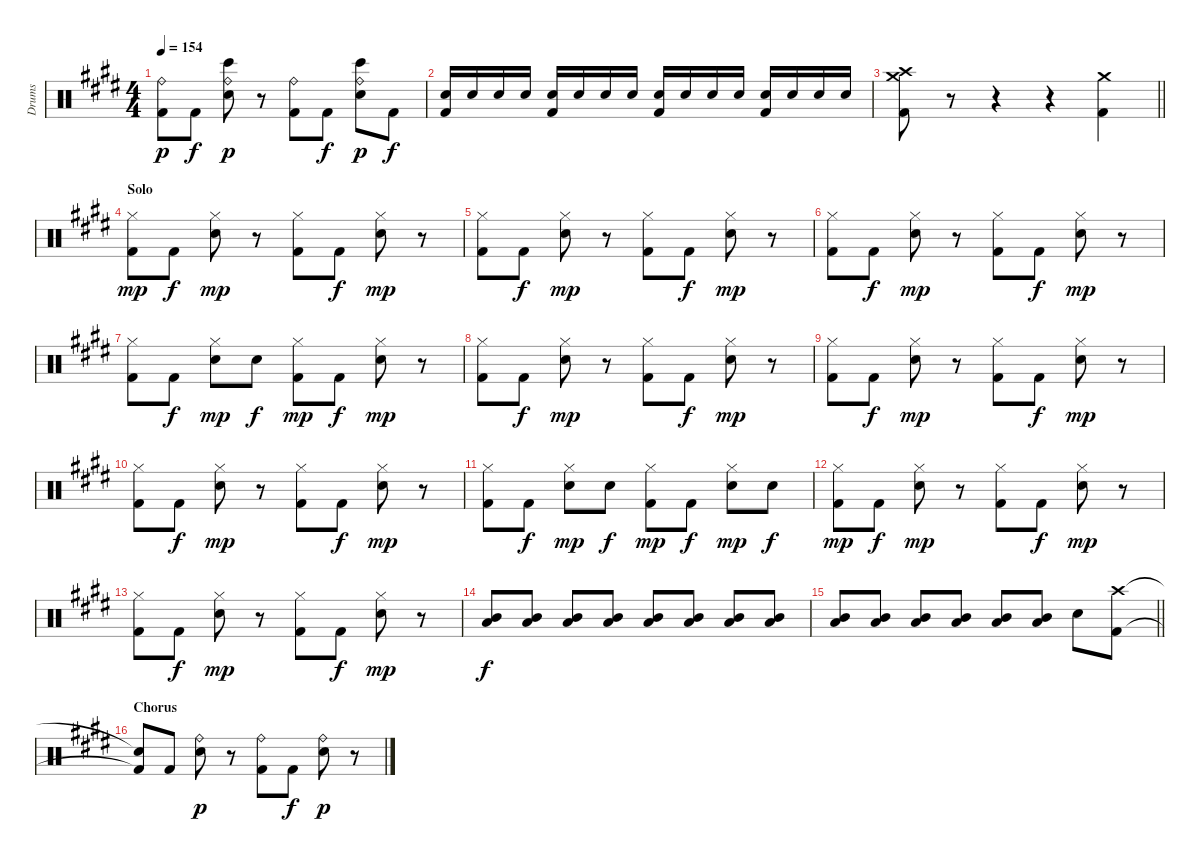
\track ("Drums" "Drums") {instrument percussion}
\staff {score}
\articulation defaults
\ts (4 4)
\tempo 154
\clef neutral
\ks e
("Ride (bell)" "Kick (hit) 2").8{dy p} "Kick (hit) 2".8{dy f} ("Ride (bell)" "Electric Snare (hit)" "Bongo High (hit)").8{dy p} r.8 ("Ride (bell)" "Kick (hit) 2").8 "Kick (hit) 2".8{dy f} ("Ride (bell)" "Electric Snare (hit)" "Bongo High (hit)").8{dy p} "Kick (hit) 2".8{dy f} |
("Electric Snare (hit)" "Kick (hit) 2").16 "Electric Snare (hit)".16 "Electric Snare (hit)".16 "Electric Snare (hit)".16 ("Electric Snare (hit)" "Kick (hit) 2").16 "Electric Snare (hit)".16 "Electric Snare (hit)".16 "Electric Snare (hit)".16 ("Electric Snare (hit)" "Kick (hit) 2").16 "Electric Snare (hit)".16 "Electric Snare (hit)".16 "Electric Snare (hit)".16 ("Electric Snare (hit)" "Kick (hit) 2").16 "Electric Snare (hit)".16 "Electric Snare (hit)".16 "Electric Snare (hit)".16 |
\barLineRight lightlight
("Crash medium (hit)" "Crash high (hit)" "Kick (hit) 2").8 r.8 r.4 r.4 ("Crash medium (hit)" "Kick (hit) 2").4 |
\section ("" "Solo")
("Hi-Hat (closed)" "Kick (hit) 2").8{dy mp} "Kick (hit) 2".8{dy f} ("Hi-Hat (closed)" "Electric Snare (hit)").8{dy mp} r.8 ("Hi-Hat (closed)" "Kick (hit) 2").8 "Kick (hit) 2".8{dy f} ("Hi-Hat (closed)" "Electric Snare (hit)").8{dy mp} r.8 |
("Hi-Hat (closed)" "Kick (hit) 2").8 "Kick (hit) 2".8{dy f} ("Hi-Hat (closed)" "Electric Snare (hit)").8{dy mp} r.8 ("Hi-Hat (closed)" "Kick (hit) 2").8 "Kick (hit) 2".8{dy f} ("Hi-Hat (closed)" "Electric Snare (hit)").8{dy mp} r.8 |
("Hi-Hat (closed)" "Kick (hit) 2").8 "Kick (hit) 2".8{dy f} ("Hi-Hat (closed)" "Electric Snare (hit)").8{dy mp} r.8 ("Hi-Hat (closed)" "Kick (hit) 2").8 "Kick (hit) 2".8{dy f} ("Hi-Hat (closed)" "Electric Snare (hit)").8{dy mp} r.8 |
("Hi-Hat (closed)" "Kick (hit) 2").8 "Kick (hit) 2".8{dy f} ("Hi-Hat (closed)" "Electric Snare (hit)").8{dy mp} "Electric Snare (hit)".8{dy f} ("Hi-Hat (closed)" "Kick (hit) 2").8{dy mp} "Kick (hit) 2".8{dy f} ("Hi-Hat (closed)" "Electric Snare (hit)").8{dy mp} r.8 |
("Hi-Hat (closed)" "Kick (hit) 2").8 "Kick (hit) 2".8{dy f} ("Hi-Hat (closed)" "Electric Snare (hit)").8{dy mp} r.8 ("Hi-Hat (closed)" "Kick (hit) 2").8 "Kick (hit) 2".8{dy f} ("Hi-Hat (closed)" "Electric Snare (hit)").8{dy mp} r.8 |
("Hi-Hat (closed)" "Kick (hit) 2").8 "Kick (hit) 2".8{dy f} ("Hi-Hat (closed)" "Electric Snare (hit)").8{dy mp} r.8 ("Hi-Hat (closed)" "Kick (hit) 2").8 "Kick (hit) 2".8{dy f} ("Hi-Hat (closed)" "Electric Snare (hit)").8{dy mp} r.8 |
("Hi-Hat (closed)" "Kick (hit) 2").8 "Kick (hit) 2".8{dy f} ("Hi-Hat (closed)" "Electric Snare (hit)").8{dy mp} r.8 ("Hi-Hat (closed)" "Kick (hit) 2").8 "Kick (hit) 2".8{dy f} ("Hi-Hat (closed)" "Electric Snare (hit)").8{dy mp} r.8 |
("Hi-Hat (closed)" "Kick (hit) 2").8 "Kick (hit) 2".8{dy f} ("Hi-Hat (closed)" "Electric Snare (hit)").8{dy mp} "Electric Snare (hit)".8{dy f} ("Hi-Hat (closed)" "Kick (hit) 2").8{dy mp} "Kick (hit) 2".8{dy f} ("Hi-Hat (closed)" "Electric Snare (hit)").8{dy mp} "Electric Snare (hit)".8{dy f} |
("Hi-Hat (closed)" "Kick (hit) 2").8{dy mp} "Kick (hit) 2".8{dy f} ("Hi-Hat (closed)" "Electric Snare (hit)").8{dy mp} r.8 ("Hi-Hat (closed)" "Kick (hit) 2").8 "Kick (hit) 2".8{dy f} ("Hi-Hat (closed)" "Electric Snare (hit)").8{dy mp} r.8 |
("Hi-Hat (closed)" "Kick (hit) 2").8 "Kick (hit) 2".8{dy f} ("Hi-Hat (closed)" "Electric Snare (hit)").8{dy mp} r.8 ("Hi-Hat (closed)" "Kick (hit) 2").8 "Kick (hit) 2".8{dy f} ("Hi-Hat (closed)" "Electric Snare (hit)").8{dy mp} r.8 |
("Mid Tom (hit)" "Low Tom (hit)").8{dy f} ("Mid Tom (hit)" "Low Tom (hit)").8 ("Mid Tom (hit)" "Low Tom (hit)").8 ("Mid Tom (hit)" "Low Tom (hit)").8 ("Mid Tom (hit)" "Low Tom (hit)").8 ("Mid Tom (hit)" "Low Tom (hit)").8 ("Mid Tom (hit)" "Low Tom (hit)").8 ("Mid Tom (hit)" "Low Tom (hit)").8 |
\barLineRight lightlight
("Mid Tom (hit)" "Low Tom (hit)").8 ("Mid Tom (hit)" "Low Tom (hit)").8 ("Mid Tom (hit)" "Low Tom (hit)").8 ("Mid Tom (hit)" "Low Tom (hit)").8 ("Mid Tom (hit)" "Low Tom (hit)").8 ("Mid Tom (hit)" "Low Tom (hit)").8 "Electric Snare (hit)".8 ("Crash high (hit)" "Kick (hit) 2").8 |
\section ("" "Chorus")
("Snare (hit)"{t} "Kick (hit) 2"{t}).8 "Kick (hit) 2".8 ("Ride (bell)" "Electric Snare (hit)").8{dy p} r.8 ("Ride (bell)" "Kick (hit) 2").8 "Kick (hit) 2".8{dy f} ("Ride (bell)" "Electric Snare (hit)").8{dy p} r.8
